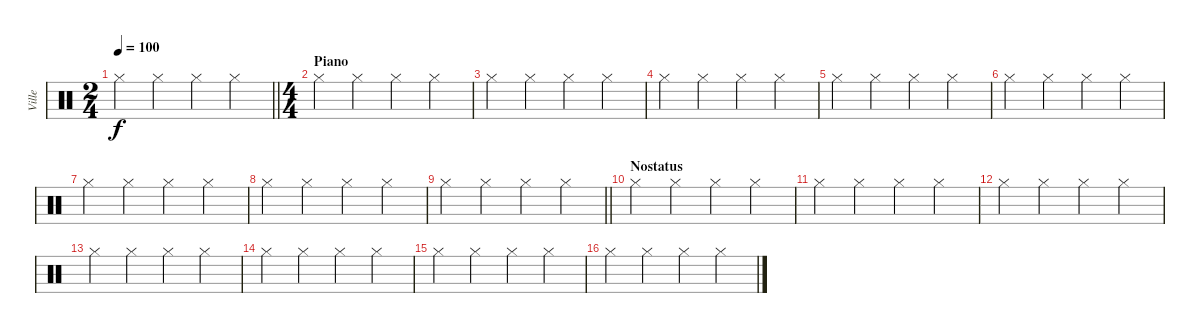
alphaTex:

\track ("Ville" "Ville") {instrument percussion}
\staff {score}
\articulation defaults
\ts (2 4)
\tempo 100
\clef neutral
\barLineRight lightlight
\ks c "Hi-Hat (closed)".4{dy f} "Hi-Hat (closed)".4 "Hi-Hat (closed)".4 "Hi-Hat (closed)".4
|
\ts (4 4)
\section ("" "Piano")
"Hi-Hat (closed)".4 "Hi-Hat (closed)".4 "Hi-Hat (closed)".4 "Hi-Hat (closed)".4 |
"Hi-Hat (closed)".4 "Hi-Hat (closed)".4 "Hi-Hat (closed)".4 "Hi-Hat (closed)".4 |
"Hi-Hat (closed)".4 "Hi-Hat (closed)".4 "Hi-Hat (closed)".4 "Hi-Hat (closed)".4 |
"Hi-Hat (closed)".4 "Hi-Hat (closed)".4 "Hi-Hat (closed)".4 "Hi-Hat (closed)".4 |
"Hi-Hat (closed)".4 "Hi-Hat (closed)".4 "Hi-Hat (closed)".4 "Hi-Hat (closed)".4 |
"Hi-Hat (closed)".4 "Hi-Hat (closed)".4 "Hi-Hat (closed)".4 "Hi-Hat (closed)".4 |
"Hi-Hat (closed)".4 "Hi-Hat (closed)".4 "Hi-Hat (closed)".4 "Hi-Hat (closed)".4 |
\barLineRight lightlight "Hi-Hat (closed)".4 "Hi-Hat (closed)".4 "Hi-Hat (closed)".4 "Hi-Hat (closed)".4
|
\section ("" "Nostatus")
"Hi-Hat (closed)".4 "Hi-Hat (closed)".4 "Hi-Hat (closed)".4 "Hi-Hat (closed)".4 |
"Hi-Hat (closed)".4 "Hi-Hat (closed)".4 "Hi-Hat (closed)".4 "Hi-Hat (closed)".4 |
"Hi-Hat (closed)".4 "Hi-Hat (closed)".4 "Hi-Hat (closed)".4 "Hi-Hat (closed)".4 |
"Hi-Hat (closed)".4 "Hi-Hat (closed)".4 "Hi-Hat (closed)".4 "Hi-Hat (closed)".4 |
"Hi-Hat (closed)".4 "Hi-Hat (closed)".4 "Hi-Hat (closed)".4 "Hi-Hat (closed)".4 |
"Hi-Hat (closed)".4 "Hi-Hat (closed)".4 "Hi-Hat (closed)".4 "Hi-Hat (closed)".4 |
"Hi-Hat (closed)".4 "Hi-Hat (closed)".4 "Hi-Hat (closed)".4 "Hi-Hat (closed)".4
